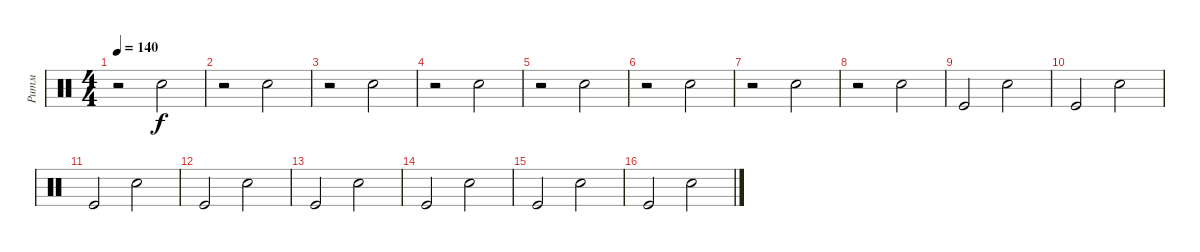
\track ("Ритм" "Ритм") {instrument percussion}
\staff {score}
\articulation defaults
\ts (4 4)
\tempo 140
\clef neutral
\ks c
r.2{dy f} "Electric Snare (hit)".2 |
r.2 "Electric Snare (hit)".2 |
r.2 "Electric Snare (hit)".2 |
r.2 "Electric Snare (hit)".2 |
r.2 "Electric Snare (hit)".2 |
r.2 "Electric Snare (hit)".2 |
r.2 "Electric Snare (hit)".2 |
r.2 "Electric Snare (hit)".2 |
"Kick (hit)".2 "Electric Snare (hit)".2 |
"Kick (hit)".2 "Electric Snare (hit)".2 |
"Kick (hit)".2 "Electric Snare (hit)".2 |
"Kick (hit)".2 "Electric Snare (hit)".2 |
"Kick (hit)".2 "Electric Snare (hit)".2 |
"Kick (hit)".2 "Electric Snare (hit)".2 |
"Kick (hit)".2 "Electric Snare (hit)".2 |
"Kick (hit)".2 "Electric Snare (hit)".2
